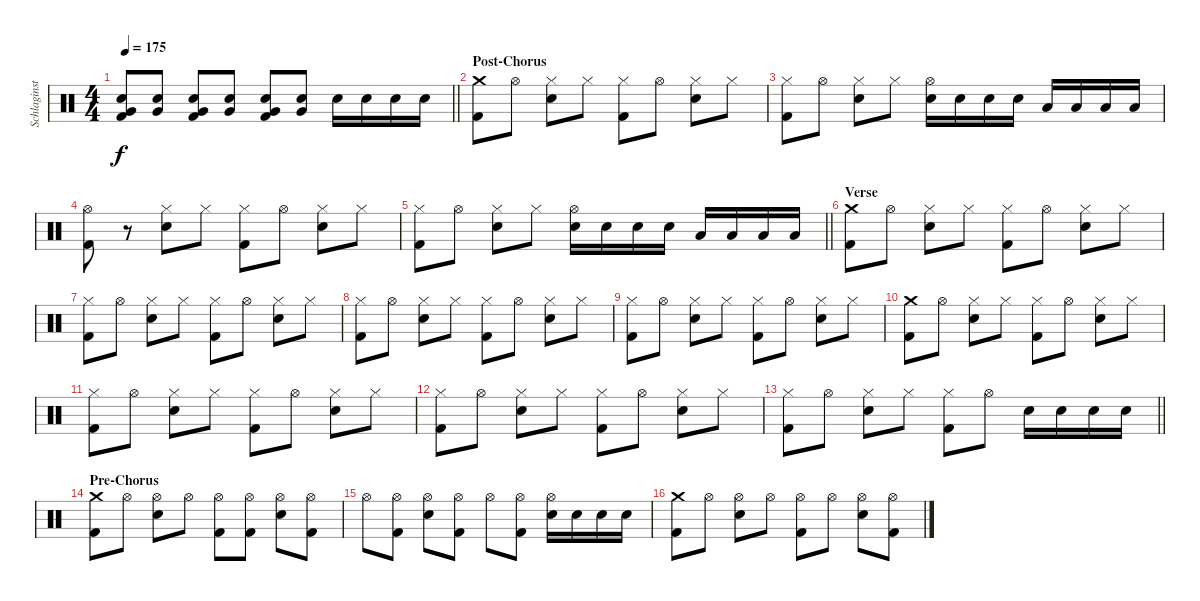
\track ("Schlaginstrumente - Auswahl" "Schlaginst") {instrument percussion}
\staff {score}
\articulation defaults
\ts (4 4)
\tempo 175
\clef neutral
\barLineRight lightlight
\ks c
("Very Low Tom (hit)" "Snare (hit) 2" "Kick (hit) 2").8{dy f} ("Very Low Tom (hit)" "Snare (hit) 2").8 ("Very Low Tom (hit)" "Snare (hit) 2" "Kick (hit) 2").8 ("Very Low Tom (hit)" "Snare (hit) 2").8 ("Very Low Tom (hit)" "Snare (hit) 2" "Kick (hit) 2").8 ("Very Low Tom (hit)" "Snare (hit) 2").8 "Snare (hit) 2".16 "Snare (hit) 2".16 "Snare (hit) 2".16 "Snare (hit) 2".16 |
\section ("" "Post-Chorus")
("Crash medium (hit)" "Kick (hit) 2").8 "Hi-Hat (open)".8 ("Hi-Hat (closed)" "Snare (hit) 2").8 "Hi-Hat (closed)".8 ("Hi-Hat (closed)" "Kick (hit) 2").8 "Hi-Hat (open)".8 ("Hi-Hat (closed)" "Snare (hit) 2").8 "Hi-Hat (closed)".8 |
("Hi-Hat (closed)" "Kick (hit) 2").8 "Hi-Hat (open)".8 ("Hi-Hat (closed)" "Snare (hit) 2").8 "Hi-Hat (closed)".8 ("Hi-Hat (open)" "Snare (hit) 2").16 "Snare (hit) 2".16 "Snare (hit) 2".16 "Snare (hit) 2".16 "Low Tom (hit)".16 "Low Tom (hit)".16 "Low Tom (hit)".16 "Low Tom (hit)".16 |
("Hi-Hat (open)" "Kick (hit) 2").8 r.8 ("Hi-Hat (closed)" "Snare (hit) 2").8 "Hi-Hat (closed)".8 ("Hi-Hat (closed)" "Kick (hit) 2").8 "Hi-Hat (open)".8 ("Hi-Hat (closed)" "Snare (hit) 2").8 "Hi-Hat (closed)".8 |
\barLineRight lightlight
("Hi-Hat (closed)" "Kick (hit) 2").8 "Hi-Hat (open)".8 ("Hi-Hat (closed)" "Snare (hit) 2").8 "Hi-Hat (closed)".8 ("Hi-Hat (open)" "Snare (hit) 2").16 "Snare (hit) 2".16 "Snare (hit) 2".16 "Snare (hit) 2".16 "Low Tom (hit)".16 "Low Tom (hit)".16 "Low Tom (hit)".16 "Low Tom (hit)".16 |
\section ("" "Verse")
("Crash medium (hit)" "Kick (hit) 2").8 "Hi-Hat (open)".8 ("Hi-Hat (closed)" "Snare (hit) 2").8 "Hi-Hat (closed)".8 ("Hi-Hat (closed)" "Kick (hit) 2").8 "Hi-Hat (open)".8 ("Hi-Hat (closed)" "Snare (hit) 2").8 "Hi-Hat (closed)".8 |
("Hi-Hat (closed)" "Kick (hit) 2").8 "Hi-Hat (open)".8 ("Hi-Hat (closed)" "Snare (hit) 2").8 "Hi-Hat (closed)".8 ("Hi-Hat (closed)" "Kick (hit) 2").8 "Hi-Hat (open)".8 ("Hi-Hat (closed)" "Snare (hit) 2").8 "Hi-Hat (closed)".8 |
("Hi-Hat (closed)" "Kick (hit) 2").8 "Hi-Hat (open)".8 ("Hi-Hat (closed)" "Snare (hit) 2").8 "Hi-Hat (closed)".8 ("Hi-Hat (closed)" "Kick (hit) 2").8 "Hi-Hat (open)".8 ("Hi-Hat (closed)" "Snare (hit) 2").8 "Hi-Hat (closed)".8 |
("Hi-Hat (closed)" "Kick (hit) 2").8 "Hi-Hat (open)".8 ("Hi-Hat (closed)" "Snare (hit) 2").8 "Hi-Hat (closed)".8 ("Hi-Hat (closed)" "Kick (hit) 2").8 "Hi-Hat (open)".8 ("Hi-Hat (closed)" "Snare (hit) 2").8 "Hi-Hat (closed)".8 |
("Crash medium (hit)" "Kick (hit) 2").8 "Hi-Hat (open)".8 ("Hi-Hat (closed)" "Snare (hit) 2").8 "Hi-Hat (closed)".8 ("Hi-Hat (closed)" "Kick (hit) 2").8 "Hi-Hat (open)".8 ("Hi-Hat (closed)" "Snare (hit) 2").8 "Hi-Hat (closed)".8 |
("Hi-Hat (closed)" "Kick (hit) 2").8 "Hi-Hat (open)".8 ("Hi-Hat (closed)" "Snare (hit) 2").8 "Hi-Hat (closed)".8 ("Hi-Hat (closed)" "Kick (hit) 2").8 "Hi-Hat (open)".8 ("Hi-Hat (closed)" "Snare (hit) 2").8 "Hi-Hat (closed)".8 |
("Hi-Hat (closed)" "Kick (hit) 2").8 "Hi-Hat (open)".8 ("Hi-Hat (closed)" "Snare (hit) 2").8 "Hi-Hat (closed)".8 ("Hi-Hat (closed)" "Kick (hit) 2").8 "Hi-Hat (open)".8 ("Hi-Hat (closed)" "Snare (hit) 2").8 "Hi-Hat (closed)".8 |
\barLineRight lightlight
("Hi-Hat (closed)" "Kick (hit) 2").8 "Hi-Hat (open)".8 ("Hi-Hat (closed)" "Snare (hit) 2").8 "Hi-Hat (closed)".8 ("Hi-Hat (closed)" "Kick (hit) 2").8 "Hi-Hat (open)".8 "Snare (hit) 2".16 "Snare (hit) 2".16 "Snare (hit) 2".16 "Snare (hit) 2".16 |
\section ("" "Pre-Chorus")
("Crash medium (hit)" "Kick (hit) 2").8 "Hi-Hat (open)".8 ("Hi-Hat (open)" "Snare (hit) 2").8 "Hi-Hat (open)".8 ("Hi-Hat (open)" "Kick (hit) 2").8 ("Hi-Hat (open)" "Kick (hit) 2").8 ("Hi-Hat (open)" "Snare (hit) 2").8 ("Hi-Hat (open)" "Kick (hit) 2").8 |
"Hi-Hat (open)".8 ("Hi-Hat (open)" "Kick (hit) 2").8 ("Hi-Hat (open)" "Snare (hit) 2").8 ("Hi-Hat (open)" "Kick (hit) 2").8 "Hi-Hat (open)".8 ("Hi-Hat (open)" "Kick (hit) 2").8 ("Hi-Hat (open)" "Snare (hit) 2").16 "Snare (hit) 2".16 "Snare (hit) 2".16 "Snare (hit) 2".16 |
("Crash medium (hit)" "Kick (hit) 2").8 "Hi-Hat (open)".8 ("Hi-Hat (open)" "Snare (hit) 2").8 "Hi-Hat (open)".8 ("Hi-Hat (open)" "Kick (hit) 2").8 "Hi-Hat (open)".8 ("Hi-Hat (open)" "Snare (hit) 2").8 ("Hi-Hat (open)" "Kick (hit) 2").8
